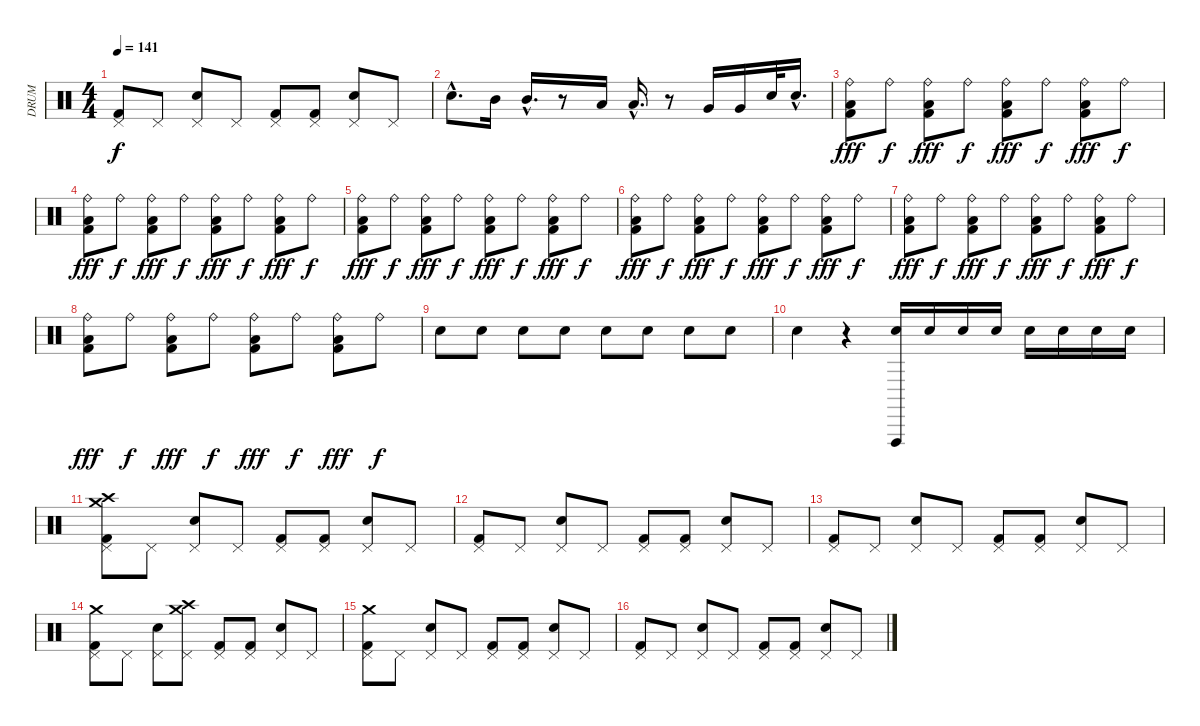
\track ("DRUM" "DRUM") {instrument percussion}
\staff {score}
\articulation defaults
\ts (4 4)
\tempo 141
\clef neutral
\ks c
("Pedal Hi-Hat (hit)" "Kick (hit) 2").8{dy f} "Pedal Hi-Hat (hit)".8 ("Snare (hit) 2" "Pedal Hi-Hat (hit)").8 "Pedal Hi-Hat (hit)".8 ("Pedal Hi-Hat (hit)" "Kick (hit) 2").8 ("Pedal Hi-Hat (hit)" "Kick (hit) 2").8 ("Snare (hit) 2" "Pedal Hi-Hat (hit)").8 "Pedal Hi-Hat (hit)".8 |
"Snare (hit) 2"{hac}.8{d} "Mid Tom (hit)".16 "Mid Tom (hit)"{hac}.16{d} r.8 "Low Tom (hit)".16 "Low Tom (hit)"{hac}.16{d} r.8 "Very Low Tom (hit)".16 "Very Low Tom (hit)".16 "Electric Snare (hit)".32 "Snare (hit) 2"{hac}.16{d} |
("Ride (bell)" "Kick (hit) 2" "Low Tom (hit)").8{dy fff} "Ride (bell)".8{dy f} ("Ride (bell)" "Kick (hit) 2" "Low Tom (hit)").8{dy fff} "Ride (bell)".8{dy f} ("Ride (bell)" "Kick (hit) 2" "Low Tom (hit)").8{dy fff} "Ride (bell)".8{dy f} ("Ride (bell)" "Kick (hit) 2" "Low Tom (hit)").8{dy fff} "Ride (bell)".8{dy f} |
("Ride (bell)" "Kick (hit) 2" "Low Tom (hit)").8{dy fff} "Ride (bell)".8{dy f} ("Ride (bell)" "Kick (hit) 2" "Low Tom (hit)").8{dy fff} "Ride (bell)".8{dy f} ("Ride (bell)" "Kick (hit) 2" "Low Tom (hit)").8{dy fff} "Ride (bell)".8{dy f} ("Ride (bell)" "Kick (hit) 2" "Low Tom (hit)").8{dy fff} "Ride (bell)".8{dy f} |
("Ride (bell)" "Kick (hit) 2" "Low Tom (hit)").8{dy fff} "Ride (bell)".8{dy f} ("Ride (bell)" "Kick (hit) 2" "Low Tom (hit)").8{dy fff} "Ride (bell)".8{dy f} ("Ride (bell)" "Kick (hit) 2" "Low Tom (hit)").8{dy fff} "Ride (bell)".8{dy f} ("Ride (bell)" "Kick (hit) 2" "Low Tom (hit)").8{dy fff} "Ride (bell)".8{dy f} |
("Ride (bell)" "Kick (hit) 2" "Low Tom (hit)").8{dy fff} "Ride (bell)".8{dy f} ("Ride (bell)" "Kick (hit) 2" "Low Tom (hit)").8{dy fff} "Ride (bell)".8{dy f} ("Ride (bell)" "Kick (hit) 2" "Low Tom (hit)").8{dy fff} "Ride (bell)".8{dy f} ("Ride (bell)" "Kick (hit) 2" "Low Tom (hit)").8{dy fff} "Ride (bell)".8{dy f} |
("Ride (bell)" "Kick (hit) 2" "Low Tom (hit)").8{dy fff} "Ride (bell)".8{dy f} ("Ride (bell)" "Kick (hit) 2" "Low Tom (hit)").8{dy fff} "Ride (bell)".8{dy f} ("Ride (bell)" "Kick (hit) 2" "Low Tom (hit)").8{dy fff} "Ride (bell)".8{dy f} ("Ride (bell)" "Kick (hit) 2" "Low Tom (hit)").8{dy fff} "Ride (bell)".8{dy f} |
("Ride (bell)" "Kick (hit) 2" "Low Tom (hit)").8{dy fff} "Ride (bell)".8{dy f} ("Ride (bell)" "Kick (hit) 2" "Low Tom (hit)").8{dy fff} "Ride (bell)".8{dy f} ("Ride (bell)" "Kick (hit) 2" "Low Tom (hit)").8{dy fff} "Ride (bell)".8{dy f} ("Ride (bell)" "Kick (hit) 2" "Low Tom (hit)").8{dy fff} "Ride (bell)".8{dy f} |
"Snare (hit) 2".8 "Snare (hit) 2".8 "Snare (hit) 2".8 "Snare (hit) 2".8 "Snare (hit) 2".8 "Snare (hit) 2".8 "Snare (hit) 2".8 "Snare (hit) 2".8 |
"Snare (hit) 2".4 r.4 ("Vibraslap (hit)" "Electric Snare (hit)").16 "Electric Snare (hit)".16 "Electric Snare (hit)".16 "Electric Snare (hit)".16 "Electric Snare (hit)".16 "Electric Snare (hit)".16 "Snare (hit) 2".16 "Electric Snare (hit)".16 |
("Crash high (hit)" "Crash medium (hit)" "Pedal Hi-Hat (hit)" "Kick (hit) 2").8 "Pedal Hi-Hat (hit)".8 ("Snare (hit) 2" "Pedal Hi-Hat (hit)").8 "Pedal Hi-Hat (hit)".8 ("Pedal Hi-Hat (hit)" "Kick (hit) 2").8 ("Pedal Hi-Hat (hit)" "Kick (hit) 2").8 ("Snare (hit) 2" "Pedal Hi-Hat (hit)").8 "Pedal Hi-Hat (hit)".8 |
("Pedal Hi-Hat (hit)" "Kick (hit) 2").8 "Pedal Hi-Hat (hit)".8 ("Snare (hit) 2" "Pedal Hi-Hat (hit)").8 "Pedal Hi-Hat (hit)".8 ("Pedal Hi-Hat (hit)" "Kick (hit) 2").8 ("Pedal Hi-Hat (hit)" "Kick (hit) 2").8 ("Snare (hit) 2" "Pedal Hi-Hat (hit)").8 "Pedal Hi-Hat (hit)".8 |
("Pedal Hi-Hat (hit)" "Kick (hit) 2").8 "Pedal Hi-Hat (hit)".8 ("Snare (hit) 2" "Pedal Hi-Hat (hit)").8 "Pedal Hi-Hat (hit)".8 ("Pedal Hi-Hat (hit)" "Kick (hit) 2").8 ("Pedal Hi-Hat (hit)" "Kick (hit) 2").8 ("Snare (hit) 2" "Pedal Hi-Hat (hit)").8 "Pedal Hi-Hat (hit)".8 |
("Crash medium (hit)" "Pedal Hi-Hat (hit)" "Kick (hit) 2").8 "Pedal Hi-Hat (hit)".8 ("Snare (hit) 2" "Pedal Hi-Hat (hit)").8 ("Crash medium (hit)" "Crash high (hit)" "Pedal Hi-Hat (hit)").8 ("Pedal Hi-Hat (hit)" "Kick (hit) 2").8 ("Pedal Hi-Hat (hit)" "Kick (hit) 2").8 ("Snare (hit) 2" "Pedal Hi-Hat (hit)").8 "Pedal Hi-Hat (hit)".8 |
("Crash medium (hit)" "Pedal Hi-Hat (hit)" "Kick (hit) 2").8 "Pedal Hi-Hat (hit)".8 ("Snare (hit) 2" "Pedal Hi-Hat (hit)").8 "Pedal Hi-Hat (hit)".8 ("Pedal Hi-Hat (hit)" "Kick (hit) 2").8 ("Pedal Hi-Hat (hit)" "Kick (hit) 2").8 ("Snare (hit) 2" "Pedal Hi-Hat (hit)").8 "Pedal Hi-Hat (hit)".8 |
("Pedal Hi-Hat (hit)" "Kick (hit) 2").8 "Pedal Hi-Hat (hit)".8 ("Snare (hit) 2" "Pedal Hi-Hat (hit)").8 "Pedal Hi-Hat (hit)".8 ("Pedal Hi-Hat (hit)" "Kick (hit) 2").8 ("Pedal Hi-Hat (hit)" "Kick (hit) 2").8 ("Snare (hit) 2" "Pedal Hi-Hat (hit)").8 "Pedal Hi-Hat (hit)".8
